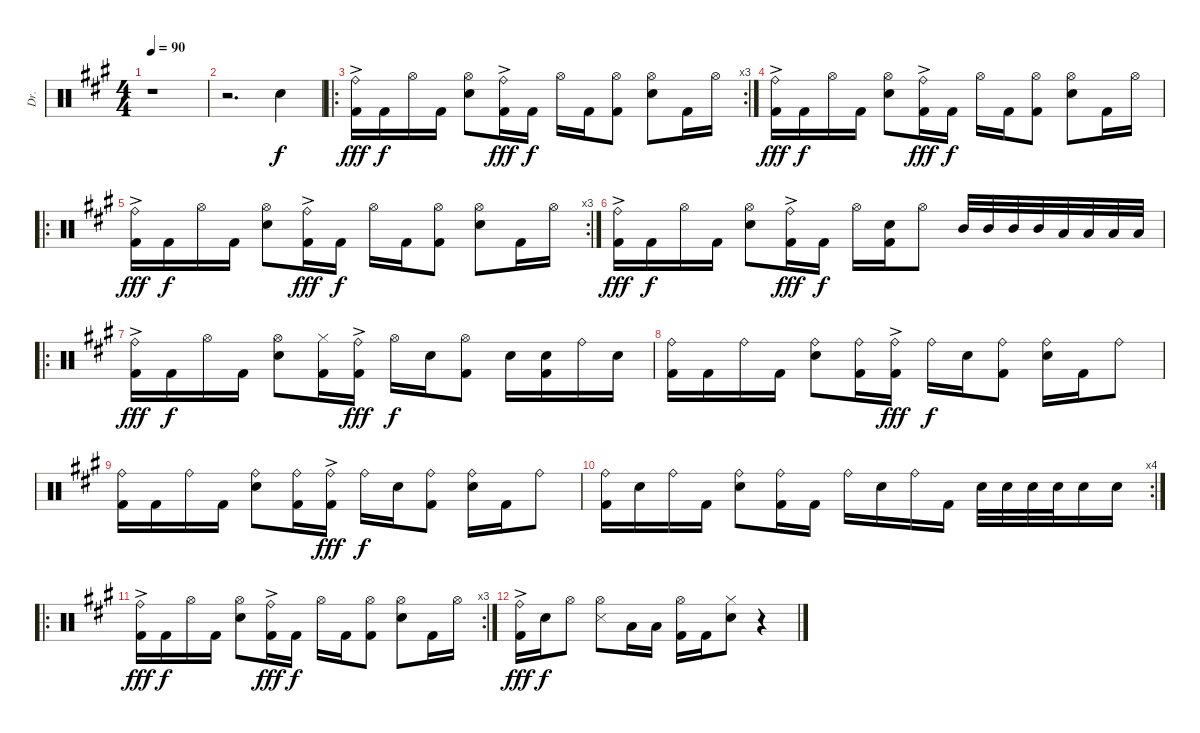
\track ("Dr." "Dr.") {instrument percussion}
\staff {score}
\articulation defaults
\ts (4 4)
\tempo 90
\clef neutral
\ks a
r.1{dy f} |
r.2{d} "Electric Snare (hit)".4 |
\ro
\rc 3
("Ride (bell)"{ac} "Kick (hit) 2"{ac}).16{dy fff} "Kick (hit) 2".16{dy f} "Hi-Hat (open)".16 "Kick (hit) 2".16 ("Hi-Hat (open)" "Electric Snare (hit)").8 ("Ride (bell)"{ac} "Kick (hit) 2"{ac}).16{dy fff} "Kick (hit) 2".16{dy f} "Hi-Hat (open)".16 "Kick (hit) 2".16 ("Hi-Hat (open)" "Kick (hit) 2").8 ("Hi-Hat (open)" "Electric Snare (hit)").8 "Kick (hit) 2".16 "Hi-Hat (open)".16 |
("Ride (bell)"{ac} "Kick (hit) 2"{ac}).16{dy fff} "Kick (hit) 2".16{dy f} "Hi-Hat (open)".16 "Kick (hit) 2".16 ("Hi-Hat (open)" "Electric Snare (hit)").8 ("Ride (bell)"{ac} "Kick (hit) 2"{ac}).16{dy fff} "Kick (hit) 2".16{dy f} "Hi-Hat (open)".16 "Kick (hit) 2".16 ("Hi-Hat (open)" "Kick (hit) 2").8 ("Hi-Hat (open)" "Electric Snare (hit)").8 "Kick (hit) 2".16 "Hi-Hat (open)".16 |
\ro
\rc 3
("Ride (bell)"{ac} "Kick (hit) 2"{ac}).16{dy fff} "Kick (hit) 2".16{dy f} "Hi-Hat (open)".16 "Kick (hit) 2".16 ("Hi-Hat (open)" "Electric Snare (hit)").8 ("Ride (bell)"{ac} "Kick (hit) 2"{ac}).16{dy fff} "Kick (hit) 2".16{dy f} "Hi-Hat (open)".16 "Kick (hit) 2".16 ("Hi-Hat (open)" "Kick (hit) 2").8 ("Hi-Hat (open)" "Electric Snare (hit)").8 "Kick (hit) 2".16 "Hi-Hat (open)".16 |
("Ride (bell)"{ac} "Kick (hit) 2"{ac}).16{dy fff} "Kick (hit) 2".16{dy f} "Hi-Hat (open)".16 "Kick (hit) 2".16 ("Hi-Hat (open)" "Electric Snare (hit)").8 ("Ride (bell)"{ac} "Kick (hit) 2"{ac}).16{dy fff} "Kick (hit) 2".16{dy f} "Hi-Hat (open)".16 ("Electric Snare (hit)" "Kick (hit) 2").16 "Hi-Hat (open)".8 "Mid Tom (hit)".32 "Mid Tom (hit)".32 "Mid Tom (hit)".32 "Mid Tom (hit)".32 "Low Tom (hit)".32 "Low Tom (hit)".32 "Low Tom (hit)".32 "Low Tom (hit)".32 |
\ro
("Ride (bell)"{ac} "Kick (hit) 2"{ac}).16{dy fff} "Kick (hit) 2".16{dy f} "Hi-Hat (open)".16 "Kick (hit) 2".16 ("Hi-Hat (open)" "Electric Snare (hit)").8 ("Hi-Hat (closed)" "Kick (hit) 2").16 ("Ride (bell)"{ac} "Kick (hit) 2"{ac}).16{dy fff} "Hi-Hat (open)".16{dy f} "Electric Snare (hit)".16 ("Hi-Hat (open)" "Kick (hit) 2").8 "Electric Snare (hit)".16 ("Electric Snare (hit)" "Kick (hit) 2").16 "Ride (bell)".16 "Electric Snare (hit)".16 |
("Ride (bell)" "Kick (hit) 2").16 "Kick (hit) 2".16 "Ride (bell)".16 "Kick (hit) 2".16 ("Ride (bell)" "Electric Snare (hit)").8 ("Ride (bell)" "Kick (hit) 2").16 ("Ride (bell)"{ac} "Kick (hit) 2"{ac}).16{dy fff} "Ride (bell)".16{dy f} "Electric Snare (hit)".16 ("Ride (bell)" "Kick (hit) 2").8 ("Ride (bell)" "Electric Snare (hit)").16 "Kick (hit) 2".16 "Ride (bell)".8 |
("Ride (bell)" "Kick (hit) 2").16 "Kick (hit) 2".16 "Ride (bell)".16 "Kick (hit) 2".16 ("Ride (bell)" "Electric Snare (hit)").8 ("Ride (bell)" "Kick (hit) 2").16 ("Ride (bell)"{ac} "Kick (hit) 2"{ac}).16{dy fff} "Ride (bell)".16{dy f} "Electric Snare (hit)".16 ("Ride (bell)" "Kick (hit) 2").8 ("Ride (bell)" "Electric Snare (hit)").16 "Kick (hit) 2".16 "Ride (bell)".8 |
\rc 4
("Ride (bell)" "Kick (hit) 2").16 "Electric Snare (hit)".16 "Ride (bell)".16 "Kick (hit) 2".16 ("Ride (bell)" "Electric Snare (hit)").8 ("Ride (bell)" "Kick (hit) 2").16 "Kick (hit) 2".16 "Ride (bell)".16 "Electric Snare (hit)".16 "Ride (bell)".16 "Kick (hit) 2".16 "Electric Snare (hit)".32 "Electric Snare (hit)".32 "Electric Snare (hit)".32 "Electric Snare (hit)".32 "Electric Snare (hit)".16 "Electric Snare (hit)".16 |
\ro
\rc 3
("Ride (bell)"{ac} "Kick (hit) 2"{ac}).16{dy fff} "Kick (hit) 2".16{dy f} "Hi-Hat (open)".16 "Kick (hit) 2".16 ("Hi-Hat (open)" "Electric Snare (hit)").8 ("Ride (bell)"{ac} "Kick (hit) 2"{ac}).16{dy fff} "Kick (hit) 2".16{dy f} "Hi-Hat (open)".16 "Kick (hit) 2".16 ("Hi-Hat (open)" "Kick (hit) 2").8 ("Hi-Hat (open)" "Electric Snare (hit)").8 "Kick (hit) 2".16 "Hi-Hat (open)".16 |
("Ride (bell)"{ac} "Kick (hit) 2").16{dy fff} "Electric Snare (hit)".16{dy f} "Hi-Hat (open)".8 ("Hi-Hat (open)" "Snare (side stick) 3").8 "Low Tom (hit)".16 "Low Tom (hit)".16 ("Hi-Hat (open)" "Kick (hit) 2").16 "Kick (hit) 2".16 ("Hi-Hat (closed)" "Electric Snare (hit)").8 r.4
